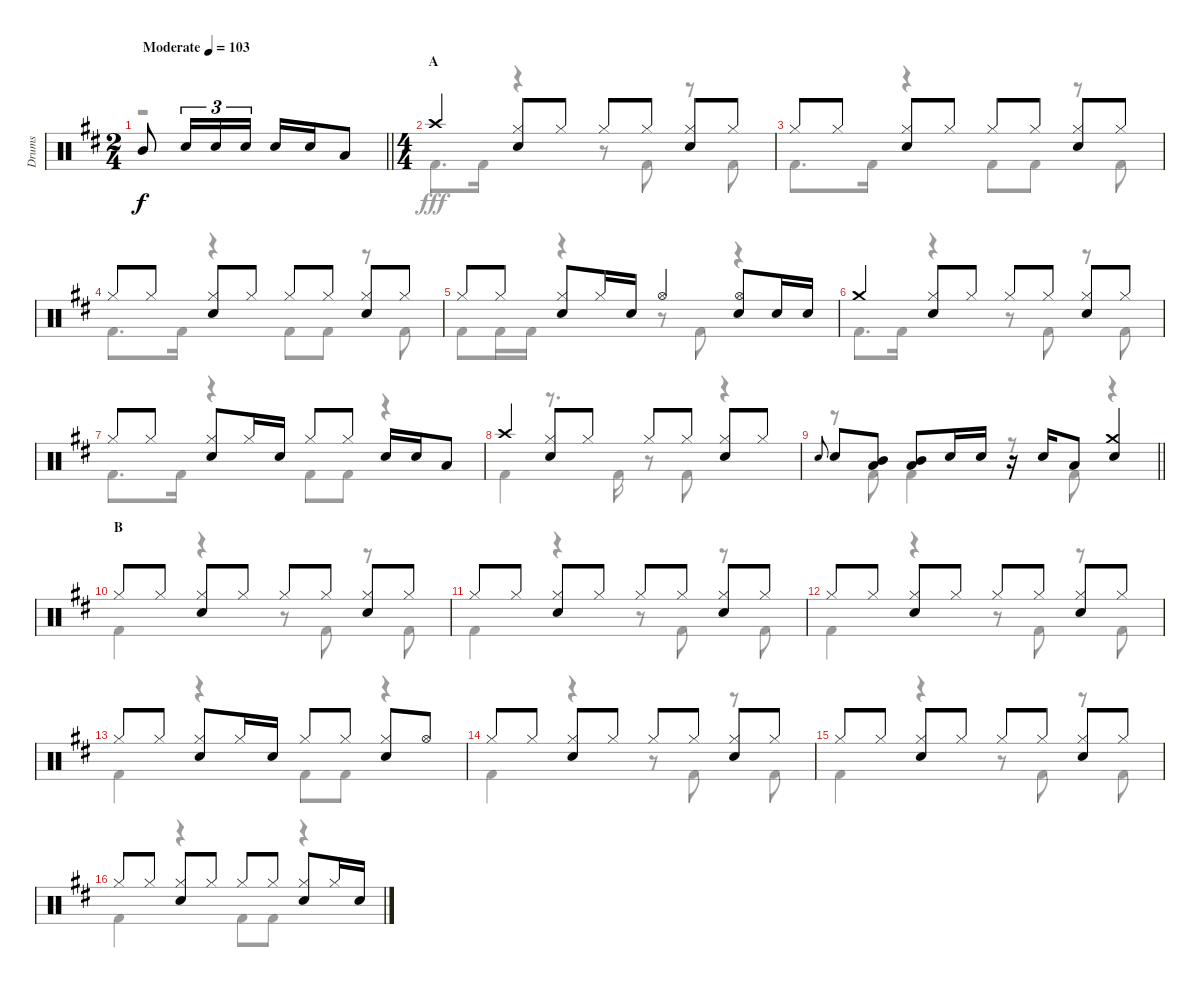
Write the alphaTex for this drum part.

\track ("Drums" "Drums") {instrument percussion}
\staff {score}
\articulation defaults
\voice
\ts (2 4)
\tempo (103 "Moderate")
\clef neutral
\barLineRight lightlight
\ks d "Mid Tom (hit)".8{dy f} "Snare (hit) 2".16{tu (3 2)} "Snare (hit) 2".16{tu (3 2)} "Snare (hit) 2".16{tu (3 2)} "Snare (hit) 2".16 "Snare (hit) 2".16 "Low Tom (hit)".8
|
\ts (4 4)
\section ("" "A")
"Crash high (hit)".4 ("Hi-Hat (closed)" "Snare (hit) 2").8 "Hi-Hat (closed)".8 "Hi-Hat (closed)".8 "Hi-Hat (closed)".8 ("Hi-Hat (closed)" "Snare (hit) 2").8 "Hi-Hat (closed)".8 |
"Hi-Hat (closed)".8 "Hi-Hat (closed)".8 ("Hi-Hat (closed)" "Snare (hit) 2").8 "Hi-Hat (closed)".8 "Hi-Hat (closed)".8 "Hi-Hat (closed)".8 ("Hi-Hat (closed)" "Snare (hit) 2").8 "Hi-Hat (closed)".8 |
"Hi-Hat (closed)".8 "Hi-Hat (closed)".8 ("Hi-Hat (closed)" "Snare (hit) 2").8 "Hi-Hat (closed)".8 "Hi-Hat (closed)".8 "Hi-Hat (closed)".8 ("Hi-Hat (closed)" "Snare (hit) 2").8 "Hi-Hat (closed)".8 |
"Hi-Hat (closed)".8 "Hi-Hat (closed)".8 ("Hi-Hat (closed)" "Snare (hit) 2").8 "Hi-Hat (closed)".16 "Snare (hit) 2".16 "Hi-Hat (open)".4 ("Hi-Hat (open)" "Snare (hit) 2").8 "Snare (hit) 2".16 "Snare (hit) 2".16 |
"Crash medium (hit)".4 ("Hi-Hat (closed)" "Snare (hit) 2").8 "Hi-Hat (closed)".8 "Hi-Hat (closed)".8 "Hi-Hat (closed)".8 ("Hi-Hat (closed)" "Snare (hit) 2").8 "Hi-Hat (closed)".8 |
"Hi-Hat (closed)".8 "Hi-Hat (closed)".8 ("Hi-Hat (closed)" "Snare (hit) 2").8 "Hi-Hat (closed)".16 "Snare (hit) 2".16 "Hi-Hat (closed)".8 "Hi-Hat (closed)".8 "Snare (hit) 2".16 "Snare (hit) 2".16 "Low Tom (hit)".8 |
"Crash high (hit)".4 ("Hi-Hat (closed)" "Snare (hit) 2").8 "Hi-Hat (closed)".8 "Hi-Hat (closed)".8 "Hi-Hat (closed)".8 ("Hi-Hat (closed)" "Snare (hit) 2").8 "Hi-Hat (closed)".8 |
\barLineRight lightlight "Snare (hit) 2".8{gr onbeat} "Snare (hit) 2".8
("Mid Tom (hit)" "Low Tom (hit)").8 ("Mid Tom (hit)" "Low Tom (hit)").8 "Snare (hit) 2".16 "Snare (hit) 2".16 r.16 "Snare (hit) 2".16 "Low Tom (hit)".8 ("Crash medium (hit)" "Snare (hit) 2").4 |
\section ("" "B")
"Hi-Hat (closed)".8 "Hi-Hat (closed)".8 ("Hi-Hat (closed)" "Snare (hit) 2").8 "Hi-Hat (closed)".8 "Hi-Hat (closed)".8 "Hi-Hat (closed)".8 ("Hi-Hat (closed)" "Snare (hit) 2").8 "Hi-Hat (closed)".8 |
"Hi-Hat (closed)".8 "Hi-Hat (closed)".8 ("Hi-Hat (closed)" "Snare (hit) 2").8 "Hi-Hat (closed)".8 "Hi-Hat (closed)".8 "Hi-Hat (closed)".8 ("Hi-Hat (closed)" "Snare (hit) 2").8 "Hi-Hat (closed)".8 |
"Hi-Hat (closed)".8 "Hi-Hat (closed)".8 ("Hi-Hat (closed)" "Snare (hit) 2").8 "Hi-Hat (closed)".8 "Hi-Hat (closed)".8 "Hi-Hat (closed)".8 ("Hi-Hat (closed)" "Snare (hit) 2").8 "Hi-Hat (closed)".8 |
"Hi-Hat (closed)".8 "Hi-Hat (closed)".8 ("Hi-Hat (closed)" "Snare (hit) 2").8 "Hi-Hat (closed)".16 "Snare (hit) 2".16 "Hi-Hat (closed)".8 "Hi-Hat (closed)".8 ("Hi-Hat (closed)" "Snare (hit) 2").8 "Hi-Hat (open)".8 |
"Hi-Hat (closed)".8 "Hi-Hat (closed)".8 ("Hi-Hat (closed)" "Snare (hit) 2").8 "Hi-Hat (closed)".8 "Hi-Hat (closed)".8 "Hi-Hat (closed)".8 ("Hi-Hat (closed)" "Snare (hit) 2").8 "Hi-Hat (closed)".8 |
"Hi-Hat (closed)".8 "Hi-Hat (closed)".8 ("Hi-Hat (closed)" "Snare (hit) 2").8 "Hi-Hat (closed)".8 "Hi-Hat (closed)".8 "Hi-Hat (closed)".8 ("Hi-Hat (closed)" "Snare (hit) 2").8 "Hi-Hat (closed)".8 |
"Hi-Hat (closed)".8 "Hi-Hat (closed)".8 ("Hi-Hat (closed)" "Snare (hit) 2").8 "Hi-Hat (closed)".8 "Hi-Hat (closed)".8 "Hi-Hat (closed)".8 ("Hi-Hat (closed)" "Snare (hit) 2").8 "Hi-Hat (closed)".16 "Snare (hit) 2".16
\voice
\clef neutral
\ottava regular
\simile none
\barLineRight lightlight
\ks d
r.2{dy fff} |
"Kick (hit) 2".8{d} "Kick (hit) 2".16 r.4 r.8 "Kick (hit) 2".8 r.8 "Kick (hit) 2".8 |
"Kick (hit) 2".8{d} "Kick (hit) 2".16 r.4 "Kick (hit) 2".8 "Kick (hit) 2".8 r.8 "Kick (hit) 2".8 |
"Kick (hit) 2".8{d} "Kick (hit) 2".16 r.4 "Kick (hit) 2".8 "Kick (hit) 2".8 r.8 "Kick (hit) 2".8 |
"Kick (hit) 2".8 "Kick (hit) 2".16 "Kick (hit) 2".16 r.4 r.8 "Kick (hit) 2".8 r.4 |
"Kick (hit) 2".8{d} "Kick (hit) 2".16 r.4 r.8 "Kick (hit) 2".8 r.8 "Kick (hit) 2".8 |
"Kick (hit) 2".8{d} "Kick (hit) 2".16 r.4 "Kick (hit) 2".8 "Kick (hit) 2".8 r.4 |
"Kick (hit) 2".4 r.8{d} "Kick (hit) 2".16 r.8 "Kick (hit) 2".8 r.4 |
\barLineRight lightlight
r.8 "Kick (hit) 2".8 "Kick (hit) 2".4 r.8 "Kick (hit) 2".8 r.4 |
"Kick (hit) 2".4 r.4 r.8 "Kick (hit) 2".8 r.8 "Kick (hit) 2".8 |
"Kick (hit) 2".4 r.4 r.8 "Kick (hit) 2".8 r.8 "Kick (hit) 2".8 |
"Kick (hit) 2".4 r.4 r.8 "Kick (hit) 2".8 r.8 "Kick (hit) 2".8 |
"Kick (hit) 2".4 r.4 "Kick (hit) 2".8 "Kick (hit) 2".8 r.4 |
"Kick (hit) 2".4 r.4 r.8 "Kick (hit) 2".8 r.8 "Kick (hit) 2".8 |
"Kick (hit) 2".4 r.4 r.8 "Kick (hit) 2".8 r.8 "Kick (hit) 2".8 |
"Kick (hit) 2".4 r.4 "Kick (hit) 2".8 "Kick (hit) 2".8 r.4
